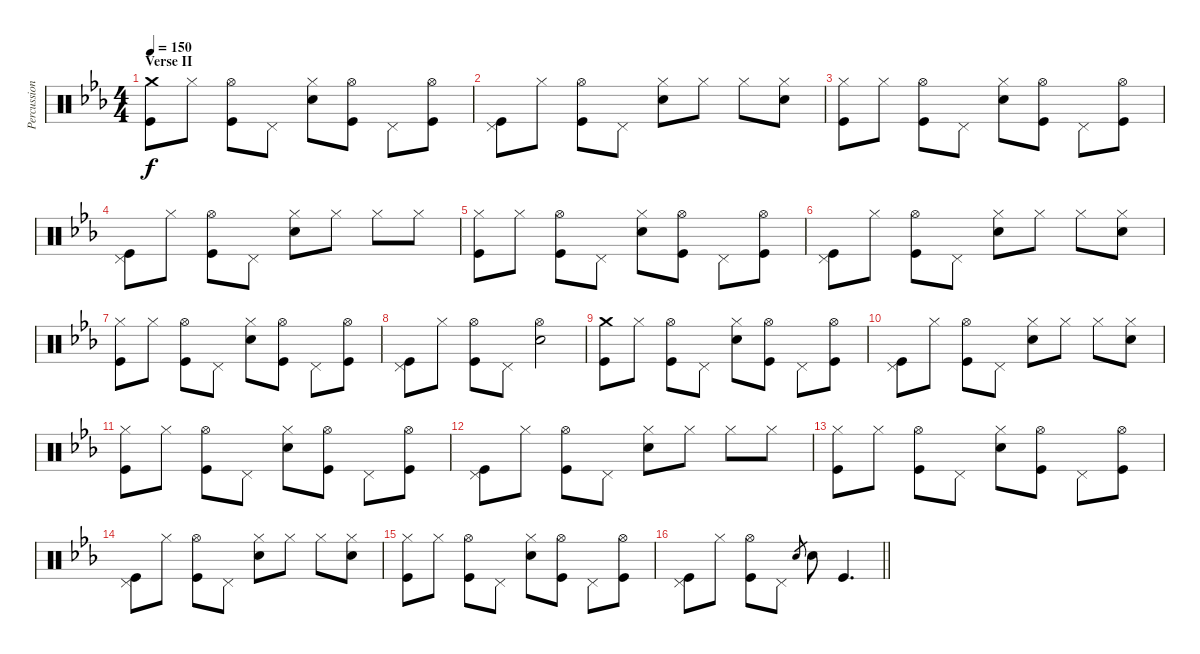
\track ("Percussion" "Percussion") {instrument percussion}
\staff {score}
\articulation defaults
\ts (4 4)
\section ("" "Verse II")
\tempo 150
\clef neutral
\ks eb
("Crash medium (hit)" "Kick (hit)").8{dy f} "Hi-Hat (closed)".8 ("Hi-Hat (open)" "Kick (hit)").8 "Pedal Hi-Hat (hit)".8 ("Hi-Hat (closed)" "Electric Snare (hit)").8 ("Hi-Hat (open)" "Kick (hit)").8 "Pedal Hi-Hat (hit)".8 ("Hi-Hat (open)" "Kick (hit)").8 |
("Pedal Hi-Hat (hit)" "Kick (hit)").8 "Hi-Hat (closed)".8 ("Hi-Hat (open)" "Kick (hit)").8 "Pedal Hi-Hat (hit)".8 ("Hi-Hat (closed)" "Electric Snare (hit)").8 "Hi-Hat (closed)".8 "Hi-Hat (closed)".8 ("Hi-Hat (closed)" "Electric Snare (hit)").8 |
("Hi-Hat (closed)" "Kick (hit)").8 "Hi-Hat (closed)".8 ("Hi-Hat (open)" "Kick (hit)").8 "Pedal Hi-Hat (hit)".8 ("Hi-Hat (closed)" "Electric Snare (hit)").8 ("Hi-Hat (open)" "Kick (hit)").8 "Pedal Hi-Hat (hit)".8 ("Hi-Hat (open)" "Kick (hit)").8 |
("Pedal Hi-Hat (hit)" "Kick (hit)").8 "Hi-Hat (closed)".8 ("Hi-Hat (open)" "Kick (hit)").8 "Pedal Hi-Hat (hit)".8 ("Hi-Hat (closed)" "Electric Snare (hit)").8 "Hi-Hat (closed)".8 "Hi-Hat (closed)".8 "Hi-Hat (closed)".8 |
("Hi-Hat (closed)" "Kick (hit)").8 "Hi-Hat (closed)".8 ("Hi-Hat (open)" "Kick (hit)").8 "Pedal Hi-Hat (hit)".8 ("Hi-Hat (closed)" "Electric Snare (hit)").8 ("Hi-Hat (open)" "Kick (hit)").8 "Pedal Hi-Hat (hit)".8 ("Hi-Hat (open)" "Kick (hit)").8 |
("Pedal Hi-Hat (hit)" "Kick (hit)").8 "Hi-Hat (closed)".8 ("Hi-Hat (open)" "Kick (hit)").8 "Pedal Hi-Hat (hit)".8 ("Hi-Hat (closed)" "Electric Snare (hit)").8 "Hi-Hat (closed)".8 "Hi-Hat (closed)".8 ("Hi-Hat (closed)" "Electric Snare (hit)").8 |
("Hi-Hat (closed)" "Kick (hit)").8 "Hi-Hat (closed)".8 ("Hi-Hat (open)" "Kick (hit)").8 "Pedal Hi-Hat (hit)".8 ("Hi-Hat (closed)" "Electric Snare (hit)").8 ("Hi-Hat (open)" "Kick (hit)").8 "Pedal Hi-Hat (hit)".8 ("Hi-Hat (open)" "Kick (hit)").8 |
("Pedal Hi-Hat (hit)" "Kick (hit)").8 "Hi-Hat (closed)".8 ("Hi-Hat (open)" "Kick (hit)").8 "Pedal Hi-Hat (hit)".8 ("Hi-Hat (open)" "Electric Snare (hit)").2 |
("Crash medium (hit)" "Kick (hit)").8 "Hi-Hat (closed)".8 ("Hi-Hat (open)" "Kick (hit)").8 "Pedal Hi-Hat (hit)".8 ("Hi-Hat (closed)" "Electric Snare (hit)").8 ("Hi-Hat (open)" "Kick (hit)").8 "Pedal Hi-Hat (hit)".8 ("Hi-Hat (open)" "Kick (hit)").8 |
("Pedal Hi-Hat (hit)" "Kick (hit)").8 "Hi-Hat (closed)".8 ("Hi-Hat (open)" "Kick (hit)").8 "Pedal Hi-Hat (hit)".8 ("Hi-Hat (closed)" "Electric Snare (hit)").8 "Hi-Hat (closed)".8 "Hi-Hat (closed)".8 ("Hi-Hat (closed)" "Electric Snare (hit)").8 |
("Hi-Hat (closed)" "Kick (hit)").8 "Hi-Hat (closed)".8 ("Hi-Hat (open)" "Kick (hit)").8 "Pedal Hi-Hat (hit)".8 ("Hi-Hat (closed)" "Electric Snare (hit)").8 ("Hi-Hat (open)" "Kick (hit)").8 "Pedal Hi-Hat (hit)".8 ("Hi-Hat (open)" "Kick (hit)").8 |
("Pedal Hi-Hat (hit)" "Kick (hit)").8 "Hi-Hat (closed)".8 ("Hi-Hat (open)" "Kick (hit)").8 "Pedal Hi-Hat (hit)".8 ("Hi-Hat (closed)" "Electric Snare (hit)").8 "Hi-Hat (closed)".8 "Hi-Hat (closed)".8 "Hi-Hat (closed)".8 |
("Hi-Hat (closed)" "Kick (hit)").8 "Hi-Hat (closed)".8 ("Hi-Hat (open)" "Kick (hit)").8 "Pedal Hi-Hat (hit)".8 ("Hi-Hat (closed)" "Electric Snare (hit)").8 ("Hi-Hat (open)" "Kick (hit)").8 "Pedal Hi-Hat (hit)".8 ("Hi-Hat (open)" "Kick (hit)").8 |
("Pedal Hi-Hat (hit)" "Kick (hit)").8 "Hi-Hat (closed)".8 ("Hi-Hat (open)" "Kick (hit)").8 "Pedal Hi-Hat (hit)".8 ("Hi-Hat (closed)" "Electric Snare (hit)").8 "Hi-Hat (closed)".8 "Hi-Hat (closed)".8 ("Hi-Hat (closed)" "Electric Snare (hit)").8 |
("Hi-Hat (closed)" "Kick (hit)").8 "Hi-Hat (closed)".8 ("Hi-Hat (open)" "Kick (hit)").8 "Pedal Hi-Hat (hit)".8 ("Hi-Hat (closed)" "Electric Snare (hit)").8 ("Hi-Hat (open)" "Kick (hit)").8 "Pedal Hi-Hat (hit)".8 ("Hi-Hat (open)" "Kick (hit)").8 |
\barLineRight lightlight
("Pedal Hi-Hat (hit)" "Kick (hit)").8 "Hi-Hat (closed)".8 ("Hi-Hat (open)" "Kick (hit)").8 "Pedal Hi-Hat (hit)".8 "Electric Snare (hit)".8{gr} "Electric Snare (hit)".8 "Kick (hit)".4{d}
